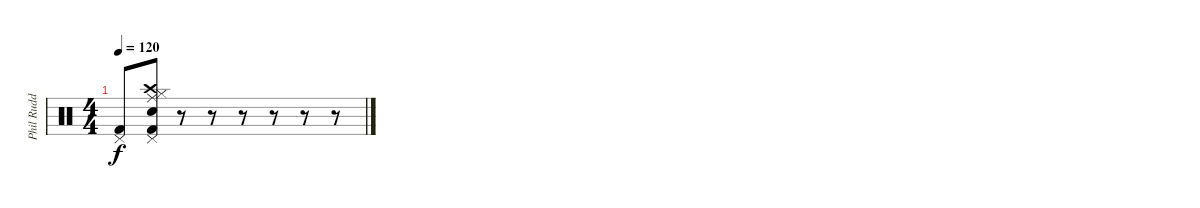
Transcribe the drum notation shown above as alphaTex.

\track ("Phil Rudd" "Phil Rudd") {instrument percussion}
\staff {score}
\articulation defaults
\ts (4 4)
\tempo 120
\clef neutral
\ks c
("Kick (hit) 2" "Pedal Hi-Hat (hit)").8{dy f} ("Snare (hit) 2" "Kick (hit) 2" "Crash high (hit)" "Pedal Hi-Hat (hit)" "Hi-Hat (closed)" "Ride (middle)").8 r.8 r.8 r.8 r.8 r.8 r.8
